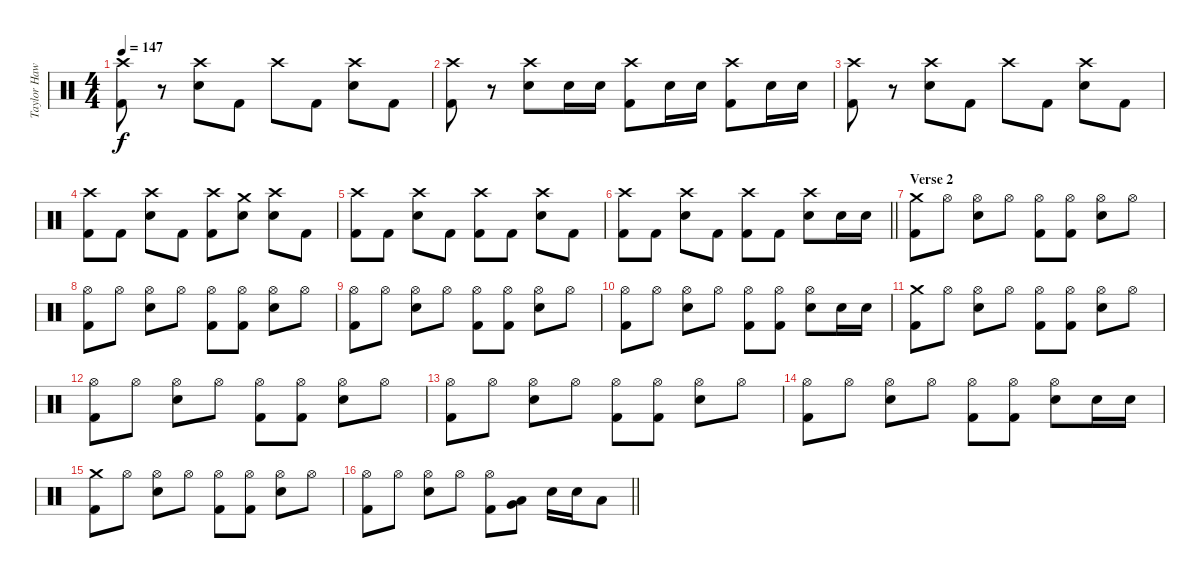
\track ("Taylor Hawkins - Drums" "Taylor Haw") {instrument percussion}
\staff {score}
\articulation defaults
\ts (4 4)
\tempo 147
\clef neutral
\ks c
("Crash high (hit)" "Kick (hit) 2").8{dy f} r.8 ("Crash high (hit)" "Snare (hit) 2").8 "Kick (hit) 2".8 "Crash high (hit)".8 "Kick (hit) 2".8 ("Crash high (hit)" "Snare (hit) 2").8 "Kick (hit) 2".8 |
("Crash high (hit)" "Kick (hit) 2").8 r.8 ("Crash high (hit)" "Snare (hit) 2").8 "Snare (hit) 2".16 "Snare (hit) 2".16 ("Crash high (hit)" "Kick (hit) 2").8 "Snare (hit) 2".16 "Snare (hit) 2".16 ("Crash high (hit)" "Kick (hit) 2").8 "Snare (hit) 2".16 "Snare (hit) 2".16 |
("Crash high (hit)" "Kick (hit) 2").8 r.8 ("Crash high (hit)" "Snare (hit) 2").8 "Kick (hit) 2".8 "Crash high (hit)".8 "Kick (hit) 2".8 ("Crash high (hit)" "Snare (hit) 2").8 "Kick (hit) 2".8 |
("Crash high (hit)" "Kick (hit) 2").8 "Kick (hit) 2".8 ("Crash high (hit)" "Snare (hit) 2").8 "Kick (hit) 2".8 ("Crash high (hit)" "Kick (hit) 2").8 ("Crash medium (hit)" "Snare (hit) 2").8 ("Crash high (hit)" "Snare (hit) 2").8 "Kick (hit) 2".8 |
("Crash high (hit)" "Kick (hit) 2").8 "Kick (hit) 2".8 ("Crash high (hit)" "Snare (hit) 2").8 "Kick (hit) 2".8 ("Crash high (hit)" "Kick (hit) 2").8 "Kick (hit) 2".8 ("Crash high (hit)" "Snare (hit) 2").8 "Kick (hit) 2".8 |
\barLineRight lightlight
("Crash high (hit)" "Kick (hit) 2").8 "Kick (hit) 2".8 ("Crash high (hit)" "Snare (hit) 2").8 "Kick (hit) 2".8 ("Crash high (hit)" "Kick (hit) 2").8 "Kick (hit) 2".8 ("Crash high (hit)" "Snare (hit) 2").8 "Snare (hit) 2".16 "Snare (hit) 2".16 |
\section ("" "Verse 2")
("Crash medium (hit)" "Kick (hit) 2").8 "Hi-Hat (open)".8 ("Hi-Hat (open)" "Snare (hit) 2").8 "Hi-Hat (open)".8 ("Hi-Hat (open)" "Kick (hit) 2").8 ("Hi-Hat (open)" "Kick (hit) 2").8 ("Hi-Hat (open)" "Snare (hit) 2").8 "Hi-Hat (open)".8 |
("Hi-Hat (open)" "Kick (hit) 2").8 "Hi-Hat (open)".8 ("Hi-Hat (open)" "Snare (hit) 2").8 "Hi-Hat (open)".8 ("Hi-Hat (open)" "Kick (hit) 2").8 ("Hi-Hat (open)" "Kick (hit) 2").8 ("Hi-Hat (open)" "Snare (hit) 2").8 "Hi-Hat (open)".8 |
("Hi-Hat (open)" "Kick (hit) 2").8 "Hi-Hat (open)".8 ("Hi-Hat (open)" "Snare (hit) 2").8 "Hi-Hat (open)".8 ("Hi-Hat (open)" "Kick (hit) 2").8 ("Hi-Hat (open)" "Kick (hit) 2").8 ("Hi-Hat (open)" "Snare (hit) 2").8 "Hi-Hat (open)".8 |
("Hi-Hat (open)" "Kick (hit) 2").8 "Hi-Hat (open)".8 ("Hi-Hat (open)" "Snare (hit) 2").8 "Hi-Hat (open)".8 ("Hi-Hat (open)" "Kick (hit) 2").8 ("Hi-Hat (open)" "Kick (hit) 2").8 ("Hi-Hat (open)" "Snare (hit) 2").8 "Snare (hit) 2".16 "Snare (hit) 2".16 |
("Crash medium (hit)" "Kick (hit) 2").8 "Hi-Hat (open)".8 ("Hi-Hat (open)" "Snare (hit) 2").8 "Hi-Hat (open)".8 ("Hi-Hat (open)" "Kick (hit) 2").8 ("Hi-Hat (open)" "Kick (hit) 2").8 ("Hi-Hat (open)" "Snare (hit) 2").8 "Hi-Hat (open)".8 |
("Hi-Hat (open)" "Kick (hit) 2").8 "Hi-Hat (open)".8 ("Hi-Hat (open)" "Snare (hit) 2").8 "Hi-Hat (open)".8 ("Hi-Hat (open)" "Kick (hit) 2").8 ("Hi-Hat (open)" "Kick (hit) 2").8 ("Hi-Hat (open)" "Snare (hit) 2").8 "Hi-Hat (open)".8 |
("Hi-Hat (open)" "Kick (hit) 2").8 "Hi-Hat (open)".8 ("Hi-Hat (open)" "Snare (hit) 2").8 "Hi-Hat (open)".8 ("Hi-Hat (open)" "Kick (hit) 2").8 ("Hi-Hat (open)" "Kick (hit) 2").8 ("Hi-Hat (open)" "Snare (hit) 2").8 "Hi-Hat (open)".8 |
("Hi-Hat (open)" "Kick (hit) 2").8 "Hi-Hat (open)".8 ("Hi-Hat (open)" "Snare (hit) 2").8 "Hi-Hat (open)".8 ("Hi-Hat (open)" "Kick (hit) 2").8 ("Hi-Hat (open)" "Kick (hit) 2").8 ("Hi-Hat (open)" "Snare (hit) 2").8 "Snare (hit) 2".16 "Snare (hit) 2".16 |
("Crash medium (hit)" "Kick (hit) 2").8 "Hi-Hat (open)".8 ("Hi-Hat (open)" "Snare (hit) 2").8 "Hi-Hat (open)".8 ("Hi-Hat (open)" "Kick (hit) 2").8 ("Hi-Hat (open)" "Kick (hit) 2").8 ("Hi-Hat (open)" "Snare (hit) 2").8 "Hi-Hat (open)".8 |
\barLineRight lightlight
("Hi-Hat (open)" "Kick (hit) 2").8 "Hi-Hat (open)".8 ("Hi-Hat (open)" "Snare (hit) 2").8 "Hi-Hat (open)".8 ("Hi-Hat (open)" "Kick (hit) 2").8 ("Low Tom (hit)" "Very Low Tom (hit)").8 "Snare (hit) 2".16 "Snare (hit) 2".16 "Low Tom (hit)".8
